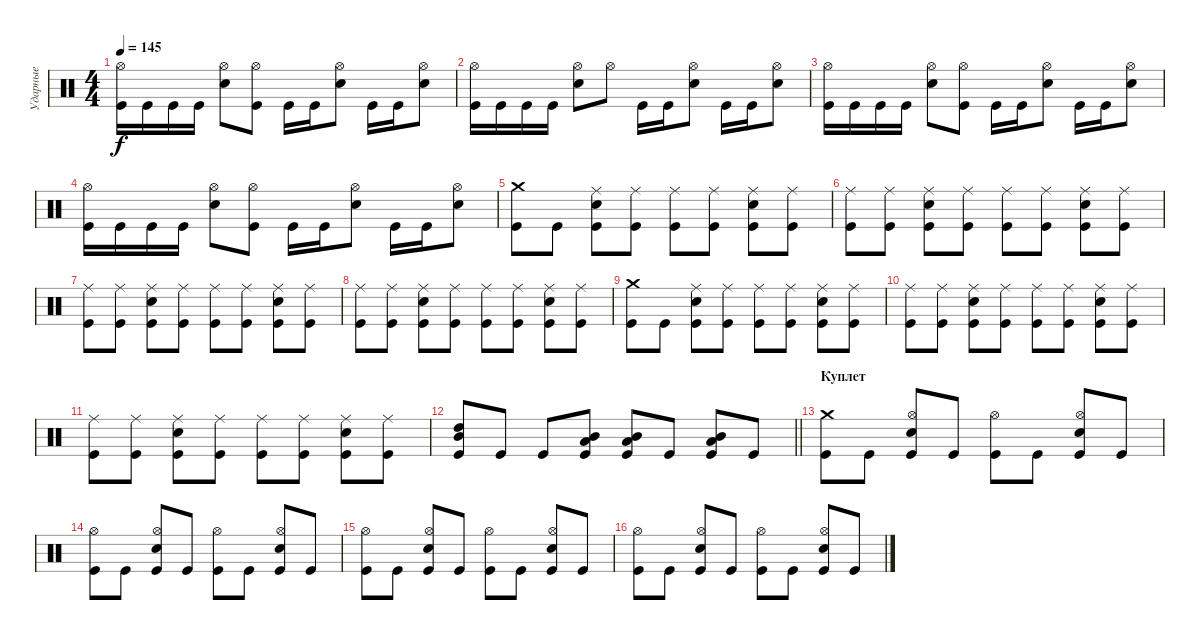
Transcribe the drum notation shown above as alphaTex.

\track ("Ударные" "Ударные") {instrument percussion}
\staff {score}
\articulation defaults
\ts (4 4)
\tempo 145
\clef neutral
\ks c
("Kick (hit)" "Hi-Hat (open)").16{dy f} "Kick (hit)".16 "Kick (hit)".16 "Kick (hit)".16 ("Snare (hit) 2" "Hi-Hat (open)").8 ("Kick (hit)" "Hi-Hat (open)").8 "Kick (hit)".16 "Kick (hit)".16 ("Snare (hit) 2" "Hi-Hat (open)").8 "Kick (hit)".16 "Kick (hit)".16 ("Snare (hit) 2" "Hi-Hat (open)").8 |
("Kick (hit)" "Hi-Hat (open)").16 "Kick (hit)".16 "Kick (hit)".16 "Kick (hit)".16 ("Snare (hit) 2" "Hi-Hat (open)").8 "Hi-Hat (open)".8 "Kick (hit)".16 "Kick (hit)".16 ("Snare (hit) 2" "Hi-Hat (open)").8 "Kick (hit)".16 "Kick (hit)".16 ("Snare (hit) 2" "Hi-Hat (open)").8 |
("Kick (hit)" "Hi-Hat (open)").16 "Kick (hit)".16 "Kick (hit)".16 "Kick (hit)".16 ("Snare (hit) 2" "Hi-Hat (open)").8 ("Kick (hit)" "Hi-Hat (open)").8 "Kick (hit)".16 "Kick (hit)".16 ("Snare (hit) 2" "Hi-Hat (open)").8 "Kick (hit)".16 "Kick (hit)".16 ("Snare (hit) 2" "Hi-Hat (open)").8 |
("Kick (hit)" "Hi-Hat (open)").16 "Kick (hit)".16 "Kick (hit)".16 "Kick (hit)".16 ("Snare (hit) 2" "Hi-Hat (open)").8 ("Kick (hit)" "Hi-Hat (open)").8 "Kick (hit)".16 "Kick (hit)".16 ("Snare (hit) 2" "Hi-Hat (open)").8 "Kick (hit)".16 "Kick (hit)".16 ("Snare (hit) 2" "Hi-Hat (open)").8 |
("Kick (hit)" "Crash medium (hit)").8 "Kick (hit)".8 ("Kick (hit)" "Snare (hit) 2" "Ride (middle)").8 ("Kick (hit)" "Ride (middle)").8 ("Kick (hit)" "Ride (middle)").8 ("Kick (hit)" "Ride (middle)").8 ("Kick (hit)" "Snare (hit) 2" "Ride (middle)").8 ("Kick (hit)" "Ride (middle)").8 |
("Kick (hit)" "Ride (middle)").8 ("Kick (hit)" "Ride (middle)").8 ("Kick (hit)" "Snare (hit) 2" "Ride (middle)").8 ("Kick (hit)" "Ride (middle)").8 ("Kick (hit)" "Ride (middle)").8 ("Kick (hit)" "Ride (middle)").8 ("Kick (hit)" "Snare (hit) 2" "Ride (middle)").8 ("Kick (hit)" "Ride (middle)").8 |
("Kick (hit)" "Ride (middle)").8 ("Kick (hit)" "Ride (middle)").8 ("Kick (hit)" "Snare (hit) 2" "Ride (middle)").8 ("Kick (hit)" "Ride (middle)").8 ("Kick (hit)" "Ride (middle)").8 ("Kick (hit)" "Ride (middle)").8 ("Kick (hit)" "Snare (hit) 2" "Ride (middle)").8 ("Kick (hit)" "Ride (middle)").8 |
("Kick (hit)" "Ride (middle)").8 ("Kick (hit)" "Ride (middle)").8 ("Kick (hit)" "Snare (hit) 2" "Ride (middle)").8 ("Kick (hit)" "Ride (middle)").8 ("Kick (hit)" "Ride (middle)").8 ("Kick (hit)" "Ride (middle)").8 ("Kick (hit)" "Snare (hit) 2" "Ride (middle)").8 ("Kick (hit)" "Ride (middle)").8 |
("Kick (hit)" "Crash medium (hit)").8 "Kick (hit)".8 ("Kick (hit)" "Snare (hit) 2" "Ride (middle)").8 ("Kick (hit)" "Ride (middle)").8 ("Kick (hit)" "Ride (middle)").8 ("Kick (hit)" "Ride (middle)").8 ("Kick (hit)" "Snare (hit) 2" "Ride (middle)").8 ("Kick (hit)" "Ride (middle)").8 |
("Kick (hit)" "Ride (middle)").8 ("Kick (hit)" "Ride (middle)").8 ("Kick (hit)" "Snare (hit) 2" "Ride (middle)").8 ("Kick (hit)" "Ride (middle)").8 ("Kick (hit)" "Ride (middle)").8 ("Kick (hit)" "Ride (middle)").8 ("Kick (hit)" "Snare (hit) 2" "Ride (middle)").8 ("Kick (hit)" "Ride (middle)").8 |
("Kick (hit)" "Ride (middle)").8 ("Kick (hit)" "Ride (middle)").8 ("Kick (hit)" "Snare (hit) 2" "Ride (middle)").8 ("Kick (hit)" "Ride (middle)").8 ("Kick (hit)" "Ride (middle)").8 ("Kick (hit)" "Ride (middle)").8 ("Kick (hit)" "Snare (hit) 2" "Ride (middle)").8 ("Kick (hit)" "Ride (middle)").8 |
\barLineRight lightlight
("Kick (hit)" "Mid Tom (hit)" "High Tom (hit)").8{bd 60} "Kick (hit)".8 "Kick (hit)".8 ("Kick (hit)" "Low Tom (hit)" "Mid Tom (hit)").8{bd 60} ("Kick (hit)" "Low Tom (hit)" "Mid Tom (hit)").8{bd 60} "Kick (hit)".8 ("Kick (hit)" "Low Tom (hit)" "Mid Tom (hit)").8{bd 60} "Kick (hit)".8 |
\section ("" "Куплет")
("Kick (hit)" "Crash medium (hit)").8 "Kick (hit)".8 ("Kick (hit)" "Snare (hit) 2" "Hi-Hat (open)").8 "Kick (hit)".8 ("Kick (hit)" "Hi-Hat (open)").8 "Kick (hit)".8 ("Kick (hit)" "Snare (hit) 2" "Hi-Hat (open)").8 "Kick (hit)".8 |
("Kick (hit)" "Hi-Hat (open)").8 "Kick (hit)".8 ("Kick (hit)" "Snare (hit) 2" "Hi-Hat (open)").8 "Kick (hit)".8 ("Kick (hit)" "Hi-Hat (open)").8 "Kick (hit)".8 ("Kick (hit)" "Snare (hit) 2" "Hi-Hat (open)").8 "Kick (hit)".8 |
("Kick (hit)" "Hi-Hat (open)").8 "Kick (hit)".8 ("Kick (hit)" "Snare (hit) 2" "Hi-Hat (open)").8 "Kick (hit)".8 ("Kick (hit)" "Hi-Hat (open)").8 "Kick (hit)".8 ("Kick (hit)" "Snare (hit) 2" "Hi-Hat (open)").8 "Kick (hit)".8 |
("Kick (hit)" "Hi-Hat (open)").8 "Kick (hit)".8 ("Kick (hit)" "Snare (hit) 2" "Hi-Hat (open)").8 "Kick (hit)".8 ("Kick (hit)" "Hi-Hat (open)").8 "Kick (hit)".8 ("Kick (hit)" "Snare (hit) 2" "Hi-Hat (open)").8 "Kick (hit)".8
